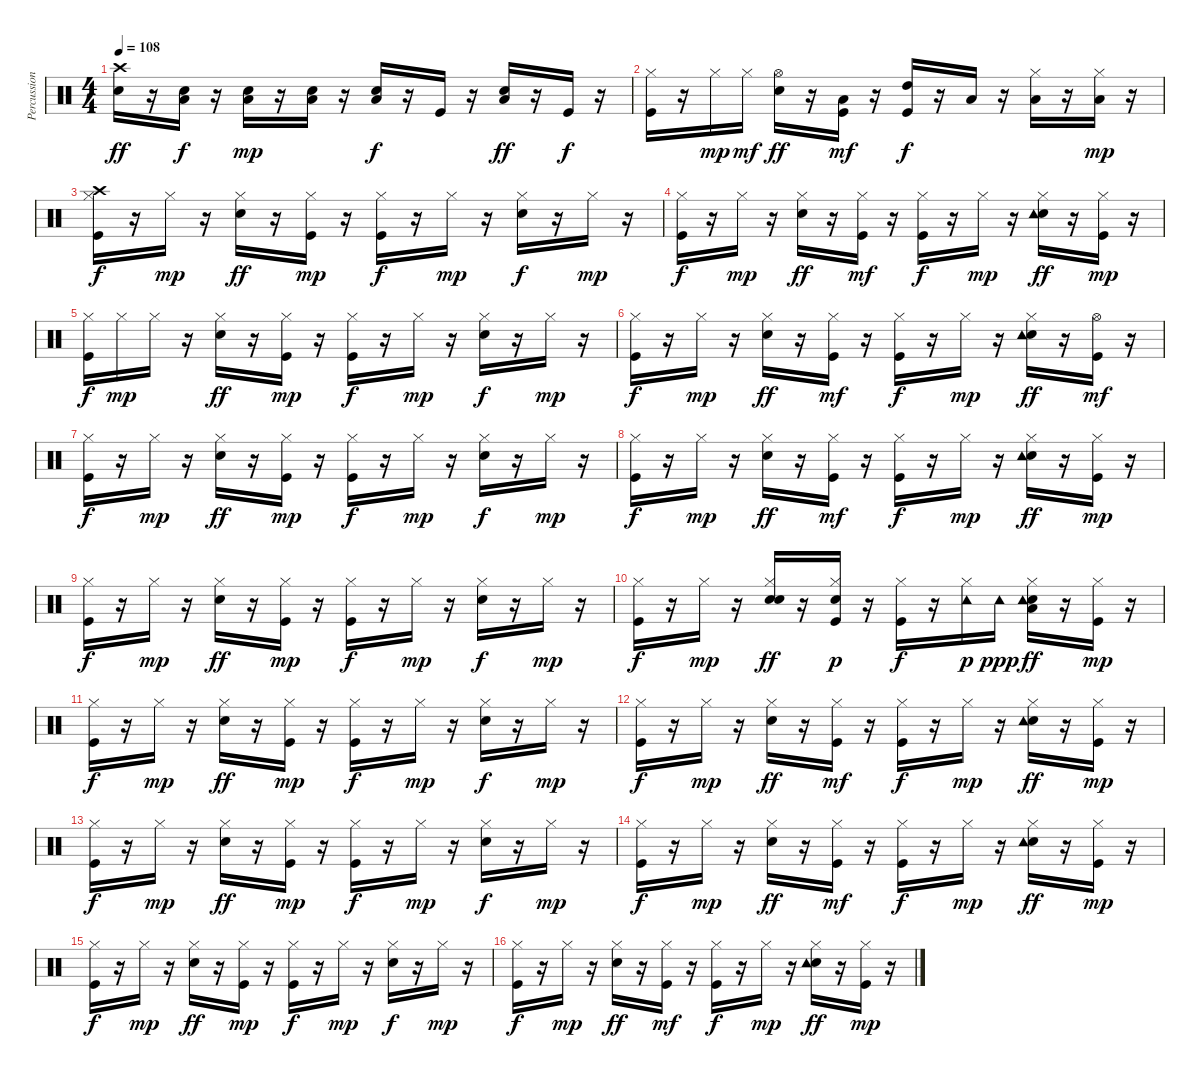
\track ("Percussion" "Percussion") {instrument percussion}
\staff {score}
\articulation defaults
\ts (4 4)
\tempo 108
\clef neutral
\ks c
("Snare (hit) 2" "Crash high (hit)").16{dy ff} r.16 ("Snare (hit) 2" "Low Floor Tom (hit)").16{dy f} r.16 ("Snare (hit) 2" "Low Floor Tom (hit)").16{dy mp} r.16 ("Snare (hit) 2" "Low Floor Tom (hit)").16 r.16 ("Snare (hit) 2" "Low Floor Tom (hit)").16{dy f} r.16 "Kick (hit)".16 r.16 ("Snare (hit) 2" "Low Floor Tom (hit)").16{dy ff} r.16 "Kick (hit)".16{dy f} r.16 |
("Kick (hit)" "Hi-Hat (closed)").16 r.16 "Hi-Hat (closed)".16{dy mp} "Hi-Hat (closed)".16{dy mf} ("Snare (hit) 2" "Hi-Hat (open)").16{dy ff} r.16 ("Kick (hit)" "Low Tom (hit)").16{dy mf} r.16 ("Kick (hit)" "High Tom (hit)").16{dy f} r.16 "Low Tom (hit)".16 r.16 ("Hi-Hat (closed)" "Low Tom (hit)").16 r.16 ("Hi-Hat (closed)" "Low Floor Tom (hit)").16{dy mp} r.16 |
("Kick (hit)" "Hi-Hat (closed)" "Crash high (hit)").16{dy f} r.16 "Hi-Hat (closed)".16{dy mp} r.16 ("Snare (hit) 2" "Hi-Hat (closed)").16{dy ff} r.16 ("Kick (hit)" "Hi-Hat (closed)").16{dy mp} r.16 ("Kick (hit)" "Hi-Hat (closed)").16{dy f} r.16 "Hi-Hat (closed)".16{dy mp} r.16 ("Snare (hit) 2" "Hi-Hat (closed)").16{dy f} r.16 "Hi-Hat (closed)".16{dy mp} r.16 |
("Kick (hit)" "Hi-Hat (closed)").16{dy f} r.16 "Hi-Hat (closed)".16{dy mp} r.16 ("Snare (hit) 2" "Hi-Hat (closed)").16{dy ff} r.16 ("Kick (hit)" "Hi-Hat (closed)").16{dy mf} r.16 ("Kick (hit)" "Hi-Hat (closed)").16{dy f} r.16 "Hi-Hat (closed)".16{dy mp} r.16 ("Snare (hit) 2" "Hi-Hat (closed)" "Tambourine (hit)").16{dy ff} r.16 ("Kick (hit)" "Hi-Hat (closed)").16{dy mp} r.16 |
("Kick (hit)" "Hi-Hat (closed)").16{dy f} "Hi-Hat (closed)".16{dy mp} "Hi-Hat (closed)".16 r.16 ("Snare (hit) 2" "Hi-Hat (closed)").16{dy ff} r.16 ("Kick (hit)" "Hi-Hat (closed)").16{dy mp} r.16 ("Kick (hit)" "Hi-Hat (closed)").16{dy f} r.16 "Hi-Hat (closed)".16{dy mp} r.16 ("Snare (hit) 2" "Hi-Hat (closed)").16{dy f} r.16 "Hi-Hat (closed)".16{dy mp} r.16 |
("Kick (hit)" "Hi-Hat (closed)").16{dy f} r.16 "Hi-Hat (closed)".16{dy mp} r.16 ("Snare (hit) 2" "Hi-Hat (closed)").16{dy ff} r.16 ("Kick (hit)" "Hi-Hat (closed)").16{dy mf} r.16 ("Kick (hit)" "Hi-Hat (closed)").16{dy f} r.16 "Hi-Hat (closed)".16{dy mp} r.16 ("Snare (hit) 2" "Hi-Hat (closed)" "Tambourine (hit)").16{dy ff} r.16 ("Kick (hit)" "Hi-Hat (open)").16{dy mf} r.16 |
("Kick (hit)" "Hi-Hat (closed)").16{dy f} r.16 "Hi-Hat (closed)".16{dy mp} r.16 ("Snare (hit) 2" "Hi-Hat (closed)").16{dy ff} r.16 ("Kick (hit)" "Hi-Hat (closed)").16{dy mp} r.16 ("Kick (hit)" "Hi-Hat (closed)").16{dy f} r.16 "Hi-Hat (closed)".16{dy mp} r.16 ("Snare (hit) 2" "Hi-Hat (closed)").16{dy f} r.16 "Hi-Hat (closed)".16{dy mp} r.16 |
("Kick (hit)" "Hi-Hat (closed)").16{dy f} r.16 "Hi-Hat (closed)".16{dy mp} r.16 ("Snare (hit) 2" "Hi-Hat (closed)").16{dy ff} r.16 ("Kick (hit)" "Hi-Hat (closed)").16{dy mf} r.16 ("Kick (hit)" "Hi-Hat (closed)").16{dy f} r.16 "Hi-Hat (closed)".16{dy mp} r.16 ("Snare (hit) 2" "Hi-Hat (closed)" "Tambourine (hit)").16{dy ff} r.16 ("Kick (hit)" "Hi-Hat (closed)").16{dy mp} r.16 |
("Kick (hit)" "Hi-Hat (closed)").16{dy f} r.16 "Hi-Hat (closed)".16{dy mp} r.16 ("Snare (hit) 2" "Hi-Hat (closed)").16{dy ff} r.16 ("Kick (hit)" "Hi-Hat (closed)").16{dy mp} r.16 ("Kick (hit)" "Hi-Hat (closed)").16{dy f} r.16 "Hi-Hat (closed)".16{dy mp} r.16 ("Snare (hit) 2" "Hi-Hat (closed)").16{dy f} r.16 "Hi-Hat (closed)".16{dy mp} r.16 |
("Kick (hit)" "Hi-Hat (closed)").16{dy f} r.16 "Hi-Hat (closed)".16{dy mp} r.16 ("Snare (hit) 2" "Hi-Hat (closed)" "Hand Clap (hit)").16{dy ff} r.16 ("Kick (hit)" "Hi-Hat (closed)" "Hand Clap (hit)").16{dy p} r.16 ("Kick (hit)" "Hi-Hat (closed)").16{dy f} r.16 ("Hi-Hat (closed)" "Tambourine (hit)").16{dy p} "Tambourine (hit)".16{dy ppp} ("Snare (hit) 2" "Hi-Hat (closed)" "Low Floor Tom (hit)" "Tambourine (hit)").16{dy ff} r.16 ("Kick (hit)" "Hi-Hat (closed)").16{dy mp} r.16 |
("Kick (hit)" "Hi-Hat (closed)").16{dy f} r.16 "Hi-Hat (closed)".16{dy mp} r.16 ("Snare (hit) 2" "Hi-Hat (closed)").16{dy ff} r.16 ("Kick (hit)" "Hi-Hat (closed)").16{dy mp} r.16 ("Kick (hit)" "Hi-Hat (closed)").16{dy f} r.16 "Hi-Hat (closed)".16{dy mp} r.16 ("Snare (hit) 2" "Hi-Hat (closed)").16{dy f} r.16 "Hi-Hat (closed)".16{dy mp} r.16 |
("Kick (hit)" "Hi-Hat (closed)").16{dy f} r.16 "Hi-Hat (closed)".16{dy mp} r.16 ("Snare (hit) 2" "Hi-Hat (closed)").16{dy ff} r.16 ("Kick (hit)" "Hi-Hat (closed)").16{dy mf} r.16 ("Kick (hit)" "Hi-Hat (closed)").16{dy f} r.16 "Hi-Hat (closed)".16{dy mp} r.16 ("Snare (hit) 2" "Hi-Hat (closed)" "Tambourine (hit)").16{dy ff} r.16 ("Kick (hit)" "Hi-Hat (closed)").16{dy mp} r.16 |
("Kick (hit)" "Hi-Hat (closed)").16{dy f} r.16 "Hi-Hat (closed)".16{dy mp} r.16 ("Snare (hit) 2" "Hi-Hat (closed)").16{dy ff} r.16 ("Kick (hit)" "Hi-Hat (closed)").16{dy mp} r.16 ("Kick (hit)" "Hi-Hat (closed)").16{dy f} r.16 "Hi-Hat (closed)".16{dy mp} r.16 ("Snare (hit) 2" "Hi-Hat (closed)").16{dy f} r.16 "Hi-Hat (closed)".16{dy mp} r.16 |
("Kick (hit)" "Hi-Hat (closed)").16{dy f} r.16 "Hi-Hat (closed)".16{dy mp} r.16 ("Snare (hit) 2" "Hi-Hat (closed)").16{dy ff} r.16 ("Kick (hit)" "Hi-Hat (closed)").16{dy mf} r.16 ("Kick (hit)" "Hi-Hat (closed)").16{dy f} r.16 "Hi-Hat (closed)".16{dy mp} r.16 ("Snare (hit) 2" "Hi-Hat (closed)" "Tambourine (hit)").16{dy ff} r.16 ("Kick (hit)" "Hi-Hat (closed)").16{dy mp} r.16 |
("Kick (hit)" "Hi-Hat (closed)").16{dy f} r.16 "Hi-Hat (closed)".16{dy mp} r.16 ("Snare (hit) 2" "Hi-Hat (closed)").16{dy ff} r.16 ("Kick (hit)" "Hi-Hat (closed)").16{dy mp} r.16 ("Kick (hit)" "Hi-Hat (closed)").16{dy f} r.16 "Hi-Hat (closed)".16{dy mp} r.16 ("Snare (hit) 2" "Hi-Hat (closed)").16{dy f} r.16 "Hi-Hat (closed)".16{dy mp} r.16 |
("Kick (hit)" "Hi-Hat (closed)").16{dy f} r.16 "Hi-Hat (closed)".16{dy mp} r.16 ("Snare (hit) 2" "Hi-Hat (closed)").16{dy ff} r.16 ("Kick (hit)" "Hi-Hat (closed)").16{dy mf} r.16 ("Kick (hit)" "Hi-Hat (closed)").16{dy f} r.16 "Hi-Hat (closed)".16{dy mp} r.16 ("Snare (hit) 2" "Hi-Hat (closed)" "Tambourine (hit)").16{dy ff} r.16 ("Kick (hit)" "Hi-Hat (closed)").16{dy mp} r.16
